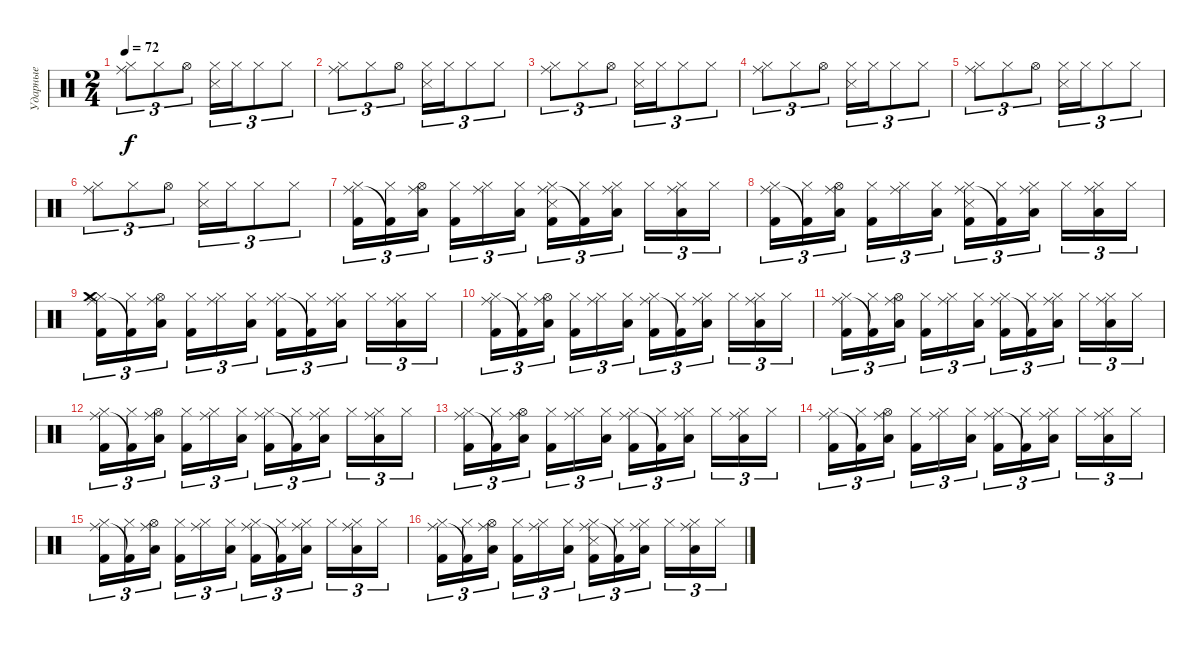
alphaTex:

\track ("Ударные" "Ударные") {instrument percussion}
\staff {score}
\articulation defaults
\ts (2 4)
\tempo 72
\clef neutral
\ks c
("Hi-Hat (closed)" "Ride (middle)").8{tu (3 2) dy f} "Hi-Hat (closed)".8{tu (3 2)} "Hi-Hat (open)".8{tu (3 2)} ("Hi-Hat (closed)" "Snare (side stick) 3").16{tu (3 2)} "Hi-Hat (closed)".16{tu (3 2)} "Hi-Hat (closed)".8{tu (3 2)} "Hi-Hat (closed)".8{tu (3 2)} |
("Hi-Hat (closed)" "Ride (middle)").8{tu (3 2)} "Hi-Hat (closed)".8{tu (3 2)} "Hi-Hat (open)".8{tu (3 2)} ("Hi-Hat (closed)" "Snare (side stick) 3").16{tu (3 2)} "Hi-Hat (closed)".16{tu (3 2)} "Hi-Hat (closed)".8{tu (3 2)} "Hi-Hat (closed)".8{tu (3 2)} |
("Hi-Hat (closed)" "Ride (middle)").8{tu (3 2)} "Hi-Hat (closed)".8{tu (3 2)} "Hi-Hat (open)".8{tu (3 2)} ("Hi-Hat (closed)" "Snare (side stick) 3").16{tu (3 2)} "Hi-Hat (closed)".16{tu (3 2)} "Hi-Hat (closed)".8{tu (3 2)} "Hi-Hat (closed)".8{tu (3 2)} |
("Hi-Hat (closed)" "Ride (middle)").8{tu (3 2)} "Hi-Hat (closed)".8{tu (3 2)} "Hi-Hat (open)".8{tu (3 2)} ("Hi-Hat (closed)" "Snare (side stick) 3").16{tu (3 2)} "Hi-Hat (closed)".16{tu (3 2)} "Hi-Hat (closed)".8{tu (3 2)} "Hi-Hat (closed)".8{tu (3 2)} |
("Hi-Hat (closed)" "Ride (middle)").8{tu (3 2)} "Hi-Hat (closed)".8{tu (3 2)} "Hi-Hat (open)".8{tu (3 2)} ("Hi-Hat (closed)" "Snare (side stick) 3").16{tu (3 2)} "Hi-Hat (closed)".16{tu (3 2)} "Hi-Hat (closed)".8{tu (3 2)} "Hi-Hat (closed)".8{tu (3 2)} |
("Hi-Hat (closed)" "Ride (middle)").8{tu (3 2)} "Hi-Hat (closed)".8{tu (3 2)} "Hi-Hat (open)".8{tu (3 2)} ("Hi-Hat (closed)" "Snare (side stick) 3").16{tu (3 2)} "Hi-Hat (closed)".16{tu (3 2)} "Hi-Hat (closed)".8{tu (3 2)} "Hi-Hat (closed)".8{tu (3 2)} |
("Hi-Hat (closed)" "Ride (middle)" "Kick (hit) 2").16{tu (3 2)} ("Hi-Hat (closed)" "Kick (hit) 2"{t}).16{tu (3 2)} ("Hi-Hat (open)" "Ride (middle)" "Low Tom (hit)").16{tu (3 2)} ("Hi-Hat (closed)" "Kick (hit) 2").16{tu (3 2)} ("Hi-Hat (closed)" "Ride (middle)").16{tu (3 2)} ("Hi-Hat (closed)" "Low Tom (hit)").16{tu (3 2)} ("Hi-Hat (closed)" "Ride (middle)" "Snare (side stick) 3" "Kick (hit) 2").16{tu (3 2)} ("Hi-Hat (closed)" "Kick (hit) 2"{t}).16{tu (3 2)} ("Hi-Hat (closed)" "Ride (middle)" "Low Tom (hit)").16{tu (3 2)} "Hi-Hat (closed)".16{tu (3 2)} ("Hi-Hat (closed)" "Ride (middle)" "Low Tom (hit)").16{tu (3 2)} "Hi-Hat (closed)".16{tu (3 2)} |
("Hi-Hat (closed)" "Ride (middle)" "Kick (hit) 2").16{tu (3 2)} ("Hi-Hat (closed)" "Kick (hit) 2"{t}).16{tu (3 2)} ("Hi-Hat (open)" "Ride (middle)" "Low Tom (hit)").16{tu (3 2)} ("Hi-Hat (closed)" "Kick (hit) 2").16{tu (3 2)} ("Hi-Hat (closed)" "Ride (middle)").16{tu (3 2)} ("Hi-Hat (closed)" "Low Tom (hit)").16{tu (3 2)} ("Hi-Hat (closed)" "Ride (middle)" "Snare (side stick) 3" "Kick (hit) 2").16{tu (3 2)} ("Hi-Hat (closed)" "Kick (hit) 2"{t}).16{tu (3 2)} ("Hi-Hat (closed)" "Ride (middle)" "Low Tom (hit)").16{tu (3 2)} "Hi-Hat (closed)".16{tu (3 2)} ("Hi-Hat (closed)" "Ride (middle)" "Low Tom (hit)").16{tu (3 2)} "Hi-Hat (closed)".16{tu (3 2)} |
("Hi-Hat (closed)" "Ride (middle)" "Crash medium (hit)" "Kick (hit) 2").16{tu (3 2)} ("Hi-Hat (closed)" "Kick (hit) 2"{t}).16{tu (3 2)} ("Hi-Hat (open)" "Ride (middle)" "Low Tom (hit)").16{tu (3 2)} ("Hi-Hat (closed)" "Kick (hit) 2").16{tu (3 2)} ("Hi-Hat (closed)" "Ride (middle)").16{tu (3 2)} ("Hi-Hat (closed)" "Low Tom (hit)").16{tu (3 2)} ("Hi-Hat (closed)" "Ride (middle)" "Kick (hit) 2").16{tu (3 2)} ("Hi-Hat (closed)" "Kick (hit) 2"{t}).16{tu (3 2)} ("Hi-Hat (closed)" "Ride (middle)" "Low Tom (hit)").16{tu (3 2)} "Hi-Hat (closed)".16{tu (3 2)} ("Hi-Hat (closed)" "Ride (middle)" "Low Tom (hit)").16{tu (3 2)} "Hi-Hat (closed)".16{tu (3 2)} |
("Hi-Hat (closed)" "Ride (middle)" "Kick (hit) 2").16{tu (3 2)} ("Hi-Hat (closed)" "Kick (hit) 2"{t}).16{tu (3 2)} ("Hi-Hat (open)" "Ride (middle)" "Low Tom (hit)").16{tu (3 2)} ("Hi-Hat (closed)" "Kick (hit) 2").16{tu (3 2)} ("Hi-Hat (closed)" "Ride (middle)").16{tu (3 2)} ("Hi-Hat (closed)" "Low Tom (hit)").16{tu (3 2)} ("Hi-Hat (closed)" "Ride (middle)" "Kick (hit) 2").16{tu (3 2)} ("Hi-Hat (closed)" "Kick (hit) 2"{t}).16{tu (3 2)} ("Hi-Hat (closed)" "Ride (middle)" "Low Tom (hit)").16{tu (3 2)} "Hi-Hat (closed)".16{tu (3 2)} ("Hi-Hat (closed)" "Ride (middle)" "Low Tom (hit)").16{tu (3 2)} "Hi-Hat (closed)".16{tu (3 2)} |
("Hi-Hat (closed)" "Ride (middle)" "Kick (hit) 2").16{tu (3 2)} ("Hi-Hat (closed)" "Kick (hit) 2"{t}).16{tu (3 2)} ("Hi-Hat (open)" "Ride (middle)" "Low Tom (hit)").16{tu (3 2)} ("Hi-Hat (closed)" "Kick (hit) 2").16{tu (3 2)} ("Hi-Hat (closed)" "Ride (middle)").16{tu (3 2)} ("Hi-Hat (closed)" "Low Tom (hit)").16{tu (3 2)} ("Hi-Hat (closed)" "Ride (middle)" "Kick (hit) 2").16{tu (3 2)} ("Hi-Hat (closed)" "Kick (hit) 2"{t}).16{tu (3 2)} ("Hi-Hat (closed)" "Ride (middle)" "Low Tom (hit)").16{tu (3 2)} "Hi-Hat (closed)".16{tu (3 2)} ("Hi-Hat (closed)" "Ride (middle)" "Low Tom (hit)").16{tu (3 2)} "Hi-Hat (closed)".16{tu (3 2)} |
("Hi-Hat (closed)" "Ride (middle)" "Kick (hit) 2").16{tu (3 2)} ("Hi-Hat (closed)" "Kick (hit) 2"{t}).16{tu (3 2)} ("Hi-Hat (open)" "Ride (middle)" "Low Tom (hit)").16{tu (3 2)} ("Hi-Hat (closed)" "Kick (hit) 2").16{tu (3 2)} ("Hi-Hat (closed)" "Ride (middle)").16{tu (3 2)} ("Hi-Hat (closed)" "Low Tom (hit)").16{tu (3 2)} ("Hi-Hat (closed)" "Ride (middle)" "Kick (hit) 2").16{tu (3 2)} ("Hi-Hat (closed)" "Kick (hit) 2"{t}).16{tu (3 2)} ("Hi-Hat (closed)" "Ride (middle)" "Low Tom (hit)").16{tu (3 2)} "Hi-Hat (closed)".16{tu (3 2)} ("Hi-Hat (closed)" "Ride (middle)" "Low Tom (hit)").16{tu (3 2)} "Hi-Hat (closed)".16{tu (3 2)} |
("Hi-Hat (closed)" "Ride (middle)" "Kick (hit) 2").16{tu (3 2)} ("Hi-Hat (closed)" "Kick (hit) 2"{t}).16{tu (3 2)} ("Hi-Hat (open)" "Ride (middle)" "Low Tom (hit)").16{tu (3 2)} ("Hi-Hat (closed)" "Kick (hit) 2").16{tu (3 2)} ("Hi-Hat (closed)" "Ride (middle)").16{tu (3 2)} ("Hi-Hat (closed)" "Low Tom (hit)").16{tu (3 2)} ("Hi-Hat (closed)" "Ride (middle)" "Kick (hit) 2").16{tu (3 2)} ("Hi-Hat (closed)" "Kick (hit) 2"{t}).16{tu (3 2)} ("Hi-Hat (closed)" "Ride (middle)" "Low Tom (hit)").16{tu (3 2)} "Hi-Hat (closed)".16{tu (3 2)} ("Hi-Hat (closed)" "Ride (middle)" "Low Tom (hit)").16{tu (3 2)} "Hi-Hat (closed)".16{tu (3 2)} |
("Hi-Hat (closed)" "Ride (middle)" "Kick (hit) 2").16{tu (3 2)} ("Hi-Hat (closed)" "Kick (hit) 2"{t}).16{tu (3 2)} ("Hi-Hat (open)" "Ride (middle)" "Low Tom (hit)").16{tu (3 2)} ("Hi-Hat (closed)" "Kick (hit) 2").16{tu (3 2)} ("Hi-Hat (closed)" "Ride (middle)").16{tu (3 2)} ("Hi-Hat (closed)" "Low Tom (hit)").16{tu (3 2)} ("Hi-Hat (closed)" "Ride (middle)" "Kick (hit) 2").16{tu (3 2)} ("Hi-Hat (closed)" "Kick (hit) 2"{t}).16{tu (3 2)} ("Hi-Hat (closed)" "Ride (middle)" "Low Tom (hit)").16{tu (3 2)} "Hi-Hat (closed)".16{tu (3 2)} ("Hi-Hat (closed)" "Ride (middle)" "Low Tom (hit)").16{tu (3 2)} "Hi-Hat (closed)".16{tu (3 2)} |
("Hi-Hat (closed)" "Ride (middle)" "Kick (hit) 2").16{tu (3 2)} ("Hi-Hat (closed)" "Kick (hit) 2"{t}).16{tu (3 2)} ("Hi-Hat (open)" "Ride (middle)" "Low Tom (hit)").16{tu (3 2)} ("Hi-Hat (closed)" "Kick (hit) 2").16{tu (3 2)} ("Hi-Hat (closed)" "Ride (middle)").16{tu (3 2)} ("Hi-Hat (closed)" "Low Tom (hit)").16{tu (3 2)} ("Hi-Hat (closed)" "Ride (middle)" "Kick (hit) 2").16{tu (3 2)} ("Hi-Hat (closed)" "Kick (hit) 2"{t}).16{tu (3 2)} ("Hi-Hat (closed)" "Ride (middle)" "Low Tom (hit)").16{tu (3 2)} "Hi-Hat (closed)".16{tu (3 2)} ("Hi-Hat (closed)" "Ride (middle)" "Low Tom (hit)").16{tu (3 2)} "Hi-Hat (closed)".16{tu (3 2)} |
("Hi-Hat (closed)" "Ride (middle)" "Kick (hit) 2").16{tu (3 2)} ("Hi-Hat (closed)" "Kick (hit) 2"{t}).16{tu (3 2)} ("Hi-Hat (open)" "Ride (middle)" "Low Tom (hit)").16{tu (3 2)} ("Hi-Hat (closed)" "Kick (hit) 2").16{tu (3 2)} ("Hi-Hat (closed)" "Ride (middle)").16{tu (3 2)} ("Hi-Hat (closed)" "Low Tom (hit)").16{tu (3 2)} ("Hi-Hat (closed)" "Ride (middle)" "Snare (side stick) 3" "Kick (hit) 2").16{tu (3 2)} ("Hi-Hat (closed)" "Kick (hit) 2"{t}).16{tu (3 2)} ("Hi-Hat (closed)" "Ride (middle)" "Low Tom (hit)").16{tu (3 2)} "Hi-Hat (closed)".16{tu (3 2)} ("Hi-Hat (closed)" "Ride (middle)" "Low Tom (hit)").16{tu (3 2)} "Hi-Hat (closed)".16{tu (3 2)}
